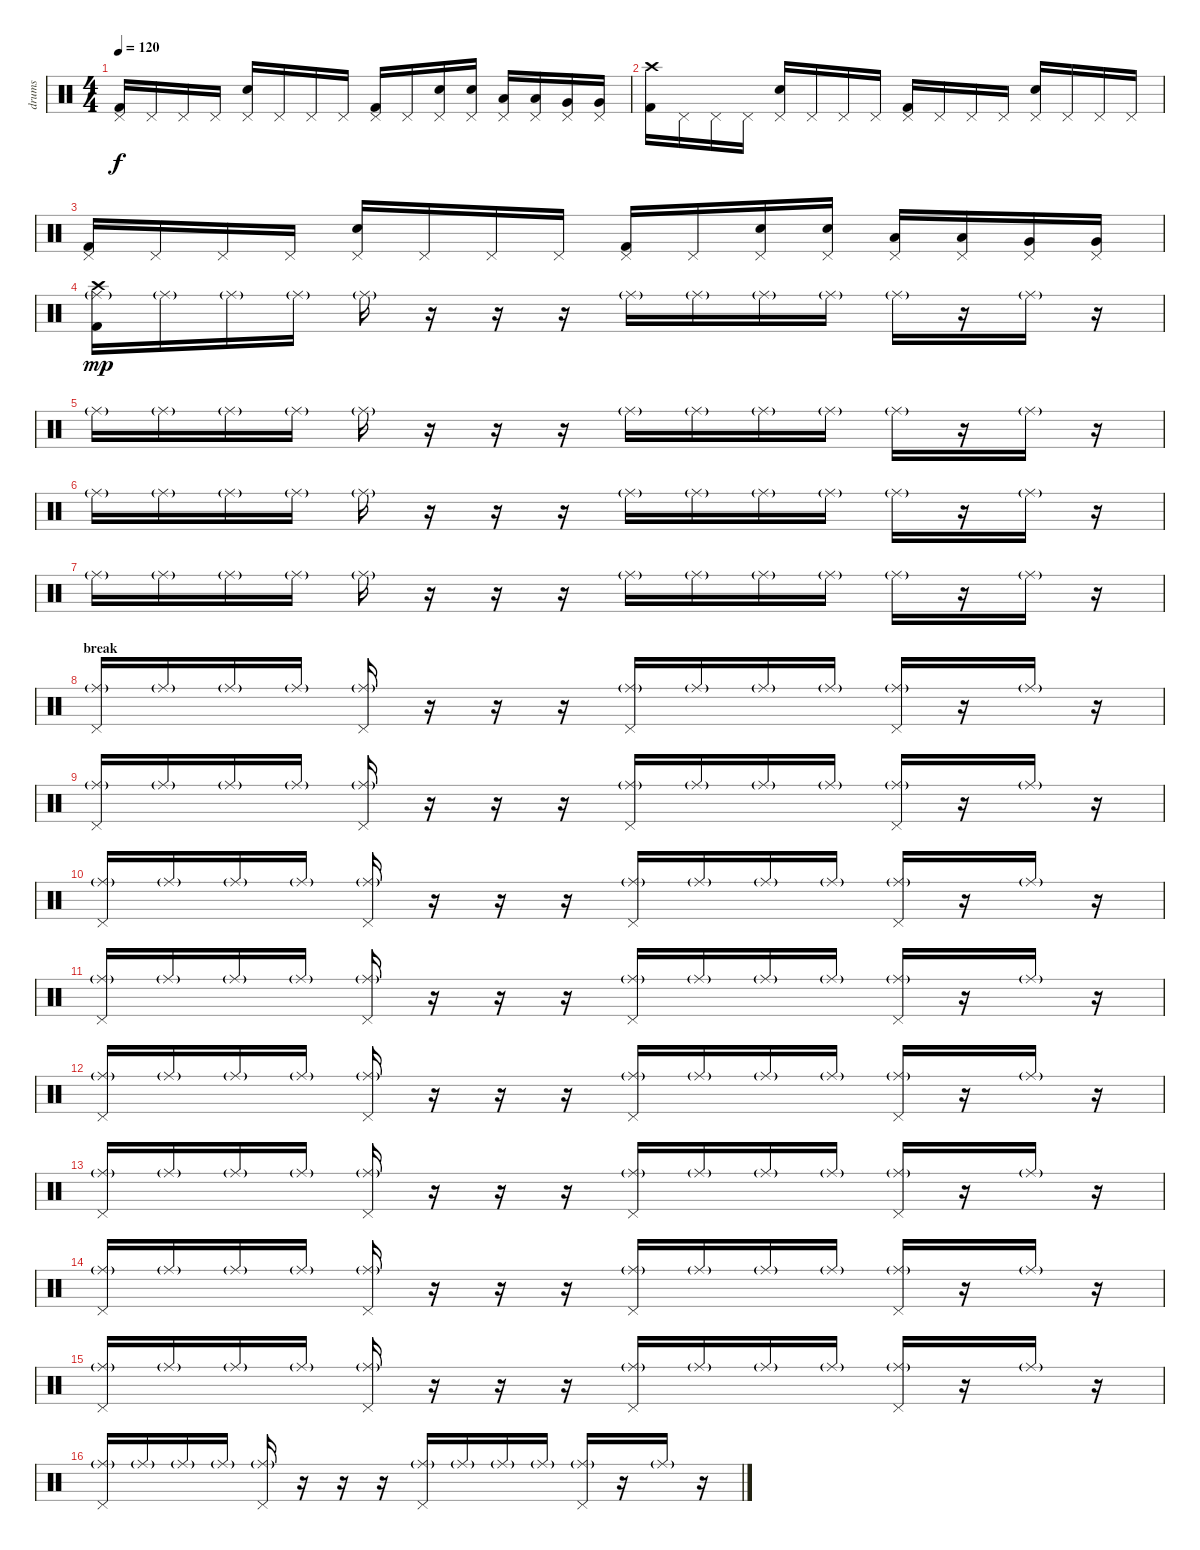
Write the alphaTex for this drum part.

\track ("drums" "drums") {instrument percussion}
\staff {score}
\articulation defaults
\ts (4 4)
\tempo 120
\clef neutral
\ks c
("Kick (hit) 2" "Pedal Hi-Hat (hit)").16{dy f} "Pedal Hi-Hat (hit)".16 "Pedal Hi-Hat (hit)".16 "Pedal Hi-Hat (hit)".16 ("Electric Snare (hit)" "Pedal Hi-Hat (hit)").16 "Pedal Hi-Hat (hit)".16 "Pedal Hi-Hat (hit)".16 "Pedal Hi-Hat (hit)".16 ("Kick (hit) 2" "Pedal Hi-Hat (hit)").16 "Pedal Hi-Hat (hit)".16 ("Electric Snare (hit)" "Pedal Hi-Hat (hit)").16 ("Electric Snare (hit)" "Pedal Hi-Hat (hit)").16 ("Low Tom (hit)" "Pedal Hi-Hat (hit)").16 ("Low Tom (hit)" "Pedal Hi-Hat (hit)").16 ("Very Low Tom (hit)" "Pedal Hi-Hat (hit)").16 ("Very Low Tom (hit)" "Pedal Hi-Hat (hit)").16 |
("Kick (hit) 2" "Crash high (hit)").16 "Pedal Hi-Hat (hit)".16 "Pedal Hi-Hat (hit)".16 "Pedal Hi-Hat (hit)".16 ("Electric Snare (hit)" "Pedal Hi-Hat (hit)").16 "Pedal Hi-Hat (hit)".16 "Pedal Hi-Hat (hit)".16 "Pedal Hi-Hat (hit)".16 ("Kick (hit) 2" "Pedal Hi-Hat (hit)").16 "Pedal Hi-Hat (hit)".16 "Pedal Hi-Hat (hit)".16 "Pedal Hi-Hat (hit)".16 ("Electric Snare (hit)" "Pedal Hi-Hat (hit)").16 "Pedal Hi-Hat (hit)".16 "Pedal Hi-Hat (hit)".16 "Pedal Hi-Hat (hit)".16 |
("Kick (hit) 2" "Pedal Hi-Hat (hit)").16 "Pedal Hi-Hat (hit)".16 "Pedal Hi-Hat (hit)".16 "Pedal Hi-Hat (hit)".16 ("Electric Snare (hit)" "Pedal Hi-Hat (hit)").16 "Pedal Hi-Hat (hit)".16 "Pedal Hi-Hat (hit)".16 "Pedal Hi-Hat (hit)".16 ("Kick (hit) 2" "Pedal Hi-Hat (hit)").16 "Pedal Hi-Hat (hit)".16 ("Electric Snare (hit)" "Pedal Hi-Hat (hit)").16 ("Electric Snare (hit)" "Pedal Hi-Hat (hit)").16 ("Low Tom (hit)" "Pedal Hi-Hat (hit)").16 ("Low Tom (hit)" "Pedal Hi-Hat (hit)").16 ("Very Low Tom (hit)" "Pedal Hi-Hat (hit)").16 ("Very Low Tom (hit)" "Pedal Hi-Hat (hit)").16 |
("Kick (hit) 2" "Ride (middle)"{g} "Crash high (hit)").16{dy mp} "Ride (middle)"{g}.16 "Ride (middle)"{g}.16 "Ride (middle)"{g}.16 "Ride (middle)"{g}.16 r.16 r.16 r.16{volume 9} "Ride (middle)"{g}.16 "Ride (middle)"{g}.16 "Ride (middle)"{g}.16 "Ride (middle)"{g}.16 "Ride (middle)"{g}.16 r.16 "Ride (middle)"{g}.16 r.16 |
"Ride (middle)"{g}.16 "Ride (middle)"{g}.16 "Ride (middle)"{g}.16 "Ride (middle)"{g}.16 "Ride (middle)"{g}.16 r.16 r.16 r.16 "Ride (middle)"{g}.16 "Ride (middle)"{g}.16 "Ride (middle)"{g}.16 "Ride (middle)"{g}.16 "Ride (middle)"{g}.16 r.16 "Ride (middle)"{g}.16 r.16 |
"Ride (middle)"{g}.16 "Ride (middle)"{g}.16 "Ride (middle)"{g}.16 "Ride (middle)"{g}.16 "Ride (middle)"{g}.16 r.16 r.16 r.16 "Ride (middle)"{g}.16 "Ride (middle)"{g}.16 "Ride (middle)"{g}.16 "Ride (middle)"{g}.16 "Ride (middle)"{g}.16 r.16 "Ride (middle)"{g}.16 r.16 |
"Ride (middle)"{g}.16 "Ride (middle)"{g}.16 "Ride (middle)"{g}.16 "Ride (middle)"{g}.16 "Ride (middle)"{g}.16 r.16 r.16 r.16 "Ride (middle)"{g}.16 "Ride (middle)"{g}.16 "Ride (middle)"{g}.16 "Ride (middle)"{g}.16 "Ride (middle)"{g}.16 r.16 "Ride (middle)"{g}.16 r.16 |
\section ("" "break")
("Pedal Hi-Hat (hit)" "Ride (middle)"{g}).16 "Ride (middle)"{g}.16 "Ride (middle)"{g}.16 "Ride (middle)"{g}.16 ("Pedal Hi-Hat (hit)" "Ride (middle)"{g}).16 r.16 r.16 r.16 ("Pedal Hi-Hat (hit)" "Ride (middle)"{g}).16 "Ride (middle)"{g}.16 "Ride (middle)"{g}.16 "Ride (middle)"{g}.16 ("Pedal Hi-Hat (hit)" "Ride (middle)"{g}).16 r.16 "Ride (middle)"{g}.16 r.16 |
("Pedal Hi-Hat (hit)" "Ride (middle)"{g}).16 "Ride (middle)"{g}.16 "Ride (middle)"{g}.16 "Ride (middle)"{g}.16 ("Pedal Hi-Hat (hit)" "Ride (middle)"{g}).16 r.16 r.16 r.16 ("Pedal Hi-Hat (hit)" "Ride (middle)"{g}).16 "Ride (middle)"{g}.16 "Ride (middle)"{g}.16 "Ride (middle)"{g}.16 ("Pedal Hi-Hat (hit)" "Ride (middle)"{g}).16 r.16 "Ride (middle)"{g}.16 r.16 |
("Pedal Hi-Hat (hit)" "Ride (middle)"{g}).16 "Ride (middle)"{g}.16 "Ride (middle)"{g}.16 "Ride (middle)"{g}.16 ("Pedal Hi-Hat (hit)" "Ride (middle)"{g}).16 r.16 r.16 r.16 ("Pedal Hi-Hat (hit)" "Ride (middle)"{g}).16 "Ride (middle)"{g}.16 "Ride (middle)"{g}.16 "Ride (middle)"{g}.16 ("Pedal Hi-Hat (hit)" "Ride (middle)"{g}).16 r.16 "Ride (middle)"{g}.16 r.16 |
("Pedal Hi-Hat (hit)" "Ride (middle)"{g}).16 "Ride (middle)"{g}.16 "Ride (middle)"{g}.16 "Ride (middle)"{g}.16 ("Pedal Hi-Hat (hit)" "Ride (middle)"{g}).16 r.16 r.16 r.16 ("Pedal Hi-Hat (hit)" "Ride (middle)"{g}).16 "Ride (middle)"{g}.16 "Ride (middle)"{g}.16 "Ride (middle)"{g}.16 ("Pedal Hi-Hat (hit)" "Ride (middle)"{g}).16 r.16 "Ride (middle)"{g}.16 r.16 |
("Pedal Hi-Hat (hit)" "Ride (middle)"{g}).16 "Ride (middle)"{g}.16 "Ride (middle)"{g}.16 "Ride (middle)"{g}.16 ("Pedal Hi-Hat (hit)" "Ride (middle)"{g}).16 r.16 r.16 r.16 ("Pedal Hi-Hat (hit)" "Ride (middle)"{g}).16 "Ride (middle)"{g}.16 "Ride (middle)"{g}.16 "Ride (middle)"{g}.16 ("Pedal Hi-Hat (hit)" "Ride (middle)"{g}).16 r.16 "Ride (middle)"{g}.16 r.16 |
("Pedal Hi-Hat (hit)" "Ride (middle)"{g}).16 "Ride (middle)"{g}.16 "Ride (middle)"{g}.16 "Ride (middle)"{g}.16 ("Pedal Hi-Hat (hit)" "Ride (middle)"{g}).16 r.16 r.16 r.16 ("Pedal Hi-Hat (hit)" "Ride (middle)"{g}).16 "Ride (middle)"{g}.16 "Ride (middle)"{g}.16 "Ride (middle)"{g}.16 ("Pedal Hi-Hat (hit)" "Ride (middle)"{g}).16 r.16 "Ride (middle)"{g}.16 r.16 |
("Pedal Hi-Hat (hit)" "Ride (middle)"{g}).16 "Ride (middle)"{g}.16 "Ride (middle)"{g}.16 "Ride (middle)"{g}.16 ("Pedal Hi-Hat (hit)" "Ride (middle)"{g}).16 r.16 r.16 r.16 ("Pedal Hi-Hat (hit)" "Ride (middle)"{g}).16 "Ride (middle)"{g}.16 "Ride (middle)"{g}.16 "Ride (middle)"{g}.16 ("Pedal Hi-Hat (hit)" "Ride (middle)"{g}).16 r.16 "Ride (middle)"{g}.16 r.16 |
("Pedal Hi-Hat (hit)" "Ride (middle)"{g}).16 "Ride (middle)"{g}.16 "Ride (middle)"{g}.16 "Ride (middle)"{g}.16 ("Pedal Hi-Hat (hit)" "Ride (middle)"{g}).16 r.16 r.16 r.16 ("Pedal Hi-Hat (hit)" "Ride (middle)"{g}).16 "Ride (middle)"{g}.16 "Ride (middle)"{g}.16 "Ride (middle)"{g}.16 ("Pedal Hi-Hat (hit)" "Ride (middle)"{g}).16 r.16 "Ride (middle)"{g}.16 r.16 |
("Pedal Hi-Hat (hit)" "Ride (middle)"{g}).16 "Ride (middle)"{g}.16 "Ride (middle)"{g}.16 "Ride (middle)"{g}.16 ("Pedal Hi-Hat (hit)" "Ride (middle)"{g}).16 r.16 r.16 r.16 ("Pedal Hi-Hat (hit)" "Ride (middle)"{g}).16 "Ride (middle)"{g}.16 "Ride (middle)"{g}.16 "Ride (middle)"{g}.16 ("Pedal Hi-Hat (hit)" "Ride (middle)"{g}).16 r.16 "Ride (middle)"{g}.16 r.16
